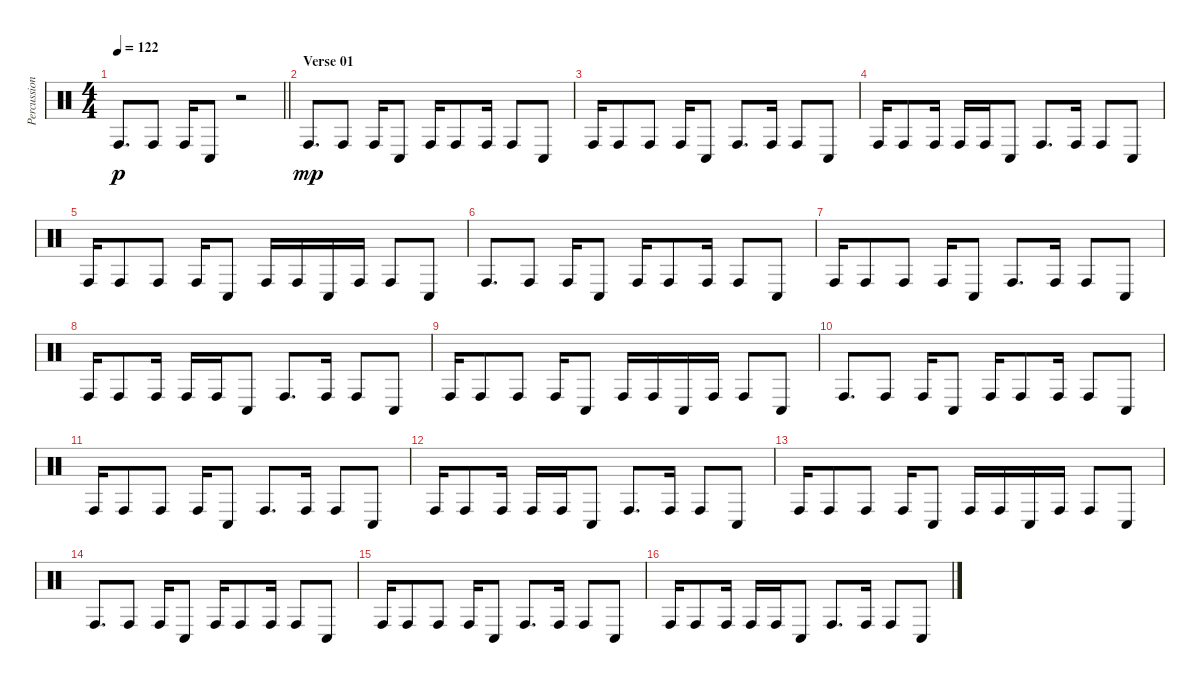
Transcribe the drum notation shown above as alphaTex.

\track ("Percussion" "Percussion") {instrument percussion}
\staff {score}
\articulation defaults
\ts (4 4)
\tempo 122
\clef neutral
\barLineRight lightlight
\ks c "Conga high (hit)".8{d dy p} "Conga high (hit)".8 "Conga high (hit)".16 "Conga low (hit)".8
r.2 |
\section ("" "Verse 01")
"Conga high (hit)".8{d dy mp} "Conga high (hit)".8 "Conga high (hit)".16 "Conga low (hit)".8 "Conga high (hit)".16 "Conga high (hit)".8 "Conga high (hit)".16 "Conga high (hit)".8 "Conga low (hit)".8 |
"Conga high (hit)".16 "Conga high (hit)".8 "Conga high (hit)".8 "Conga high (hit)".16 "Conga low (hit)".8 "Conga high (hit)".8{d} "Conga high (hit)".16 "Conga high (hit)".8 "Conga low (hit)".8 |
"Conga high (hit)".16 "Conga high (hit)".8 "Conga high (hit)".16 "Conga high (hit)".16 "Conga high (hit)".16 "Conga low (hit)".8 "Conga high (hit)".8{d} "Conga high (hit)".16 "Conga high (hit)".8 "Conga low (hit)".8 |
"Conga high (hit)".16 "Conga high (hit)".8 "Conga high (hit)".8 "Conga high (hit)".16 "Conga low (hit)".8 "Conga high (hit)".16 "Conga high (hit)".16 "Conga low (hit)".16 "Conga high (hit)".16 "Conga high (hit)".8 "Conga low (hit)".8 |
"Conga high (hit)".8{d} "Conga high (hit)".8 "Conga high (hit)".16 "Conga low (hit)".8 "Conga high (hit)".16 "Conga high (hit)".8 "Conga high (hit)".16 "Conga high (hit)".8 "Conga low (hit)".8 |
"Conga high (hit)".16 "Conga high (hit)".8 "Conga high (hit)".8 "Conga high (hit)".16 "Conga low (hit)".8 "Conga high (hit)".8{d} "Conga high (hit)".16 "Conga high (hit)".8 "Conga low (hit)".8 |
"Conga high (hit)".16 "Conga high (hit)".8 "Conga high (hit)".16 "Conga high (hit)".16 "Conga high (hit)".16 "Conga low (hit)".8 "Conga high (hit)".8{d} "Conga high (hit)".16 "Conga high (hit)".8 "Conga low (hit)".8 |
"Conga high (hit)".16 "Conga high (hit)".8 "Conga high (hit)".8 "Conga high (hit)".16 "Conga low (hit)".8 "Conga high (hit)".16 "Conga high (hit)".16 "Conga low (hit)".16 "Conga high (hit)".16 "Conga high (hit)".8 "Conga low (hit)".8 |
"Conga high (hit)".8{d} "Conga high (hit)".8 "Conga high (hit)".16 "Conga low (hit)".8 "Conga high (hit)".16 "Conga high (hit)".8 "Conga high (hit)".16 "Conga high (hit)".8 "Conga low (hit)".8 |
"Conga high (hit)".16 "Conga high (hit)".8 "Conga high (hit)".8 "Conga high (hit)".16 "Conga low (hit)".8 "Conga high (hit)".8{d} "Conga high (hit)".16 "Conga high (hit)".8 "Conga low (hit)".8 |
"Conga high (hit)".16 "Conga high (hit)".8 "Conga high (hit)".16 "Conga high (hit)".16 "Conga high (hit)".16 "Conga low (hit)".8 "Conga high (hit)".8{d} "Conga high (hit)".16 "Conga high (hit)".8 "Conga low (hit)".8 |
"Conga high (hit)".16 "Conga high (hit)".8 "Conga high (hit)".8 "Conga high (hit)".16 "Conga low (hit)".8 "Conga high (hit)".16 "Conga high (hit)".16 "Conga low (hit)".16 "Conga high (hit)".16 "Conga high (hit)".8 "Conga low (hit)".8 |
"Conga high (hit)".8{d} "Conga high (hit)".8 "Conga high (hit)".16 "Conga low (hit)".8 "Conga high (hit)".16 "Conga high (hit)".8 "Conga high (hit)".16 "Conga high (hit)".8 "Conga low (hit)".8 |
"Conga high (hit)".16 "Conga high (hit)".8 "Conga high (hit)".8 "Conga high (hit)".16 "Conga low (hit)".8 "Conga high (hit)".8{d} "Conga high (hit)".16 "Conga high (hit)".8 "Conga low (hit)".8 |
"Conga high (hit)".16 "Conga high (hit)".8 "Conga high (hit)".16 "Conga high (hit)".16 "Conga high (hit)".16 "Conga low (hit)".8 "Conga high (hit)".8{d} "Conga high (hit)".16 "Conga high (hit)".8 "Conga low (hit)".8
